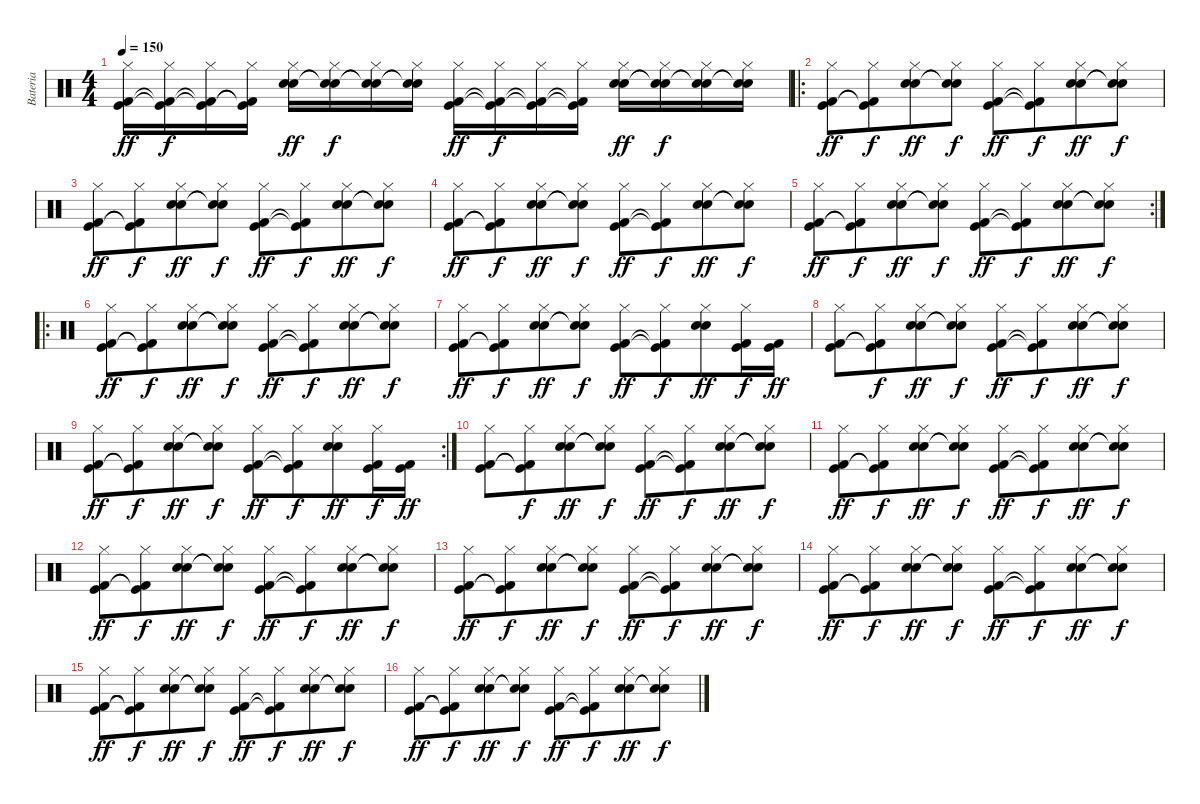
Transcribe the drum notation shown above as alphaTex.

\track ("Bateria" "Bateria") {instrument percussion}
\staff {score}
\articulation defaults
\ts (4 4)
\tempo 150
\clef neutral
\ks c
("Hi-Hat (closed)" "Kick (hit) 2" "Kick (hit)").16{dy ff} ("Hi-Hat (closed)" "Kick (hit) 2"{t} "Kick (hit)"{t}).16{dy f} ("Hi-Hat (closed)" "Kick (hit) 2"{t} "Kick (hit)"{t}).16 ("Hi-Hat (closed)" "Kick (hit)"{t} "Kick (hit) 2"{t}).16 ("Hi-Hat (closed)" "Snare (hit) 2" "Electric Snare (hit)").16{dy ff} ("Hi-Hat (closed)" "Snare (hit) 2"{t} "Electric Snare (hit)"{t}).16{dy f} ("Hi-Hat (closed)" "Snare (hit) 2"{t} "Electric Snare (hit)"{t}).16 ("Hi-Hat (closed)" "Snare (hit) 2"{t} "Electric Snare (hit)"{t}).16 ("Hi-Hat (closed)" "Kick (hit) 2" "Kick (hit)").16{dy ff} ("Hi-Hat (closed)" "Kick (hit) 2"{t} "Kick (hit)"{t}).16{dy f} ("Hi-Hat (closed)" "Kick (hit) 2"{t} "Kick (hit)"{t}).16 ("Hi-Hat (closed)" "Kick (hit) 2"{t} "Kick (hit)"{t}).16 ("Hi-Hat (closed)" "Snare (hit) 2" "Electric Snare (hit)").16{dy ff} ("Hi-Hat (closed)" "Snare (hit) 2"{t} "Electric Snare (hit)"{t}).16{dy f} ("Hi-Hat (closed)" "Snare (hit) 2"{t} "Electric Snare (hit)"{t}).16 ("Hi-Hat (closed)" "Snare (hit) 2"{t} "Electric Snare (hit)"{t}).16 |
\ro
("Hi-Hat (closed)" "Kick (hit) 2" "Kick (hit)").8{dy ff} ("Hi-Hat (closed)" "Kick (hit)"{t} "Kick (hit) 2"{t}).8{dy f beam merge} ("Hi-Hat (closed)" "Snare (hit) 2" "Electric Snare (hit)").8{dy ff} ("Hi-Hat (closed)" "Snare (hit) 2"{t} "Electric Snare (hit)"{t}).8{dy f} ("Hi-Hat (closed)" "Kick (hit) 2" "Kick (hit)").8{dy ff} ("Hi-Hat (closed)" "Kick (hit) 2"{t} "Kick (hit)"{t}).8{dy f beam merge} ("Hi-Hat (closed)" "Snare (hit) 2" "Electric Snare (hit)").8{dy ff} ("Hi-Hat (closed)" "Snare (hit) 2"{t} "Electric Snare (hit)"{t}).8{dy f} |
("Hi-Hat (closed)" "Kick (hit) 2" "Kick (hit)").8{dy ff} ("Hi-Hat (closed)" "Kick (hit)"{t} "Kick (hit) 2"{t}).8{dy f beam merge} ("Hi-Hat (closed)" "Snare (hit) 2" "Electric Snare (hit)").8{dy ff} ("Hi-Hat (closed)" "Snare (hit) 2"{t} "Electric Snare (hit)"{t}).8{dy f} ("Hi-Hat (closed)" "Kick (hit) 2" "Kick (hit)").8{dy ff} ("Hi-Hat (closed)" "Kick (hit) 2"{t} "Kick (hit)"{t}).8{dy f beam merge} ("Hi-Hat (closed)" "Snare (hit) 2" "Electric Snare (hit)").8{dy ff} ("Hi-Hat (closed)" "Snare (hit) 2"{t} "Electric Snare (hit)"{t}).8{dy f} |
("Hi-Hat (closed)" "Kick (hit) 2" "Kick (hit)").8{dy ff} ("Hi-Hat (closed)" "Kick (hit)"{t} "Kick (hit) 2"{t}).8{dy f beam merge} ("Hi-Hat (closed)" "Snare (hit) 2" "Electric Snare (hit)").8{dy ff} ("Hi-Hat (closed)" "Snare (hit) 2"{t} "Electric Snare (hit)"{t}).8{dy f} ("Hi-Hat (closed)" "Kick (hit) 2" "Kick (hit)").8{dy ff} ("Hi-Hat (closed)" "Kick (hit) 2"{t} "Kick (hit)"{t}).8{dy f beam merge} ("Hi-Hat (closed)" "Snare (hit) 2" "Electric Snare (hit)").8{dy ff} ("Hi-Hat (closed)" "Snare (hit) 2"{t} "Electric Snare (hit)"{t}).8{dy f} |
\rc 2
("Hi-Hat (closed)" "Kick (hit) 2" "Kick (hit)").8{dy ff} ("Hi-Hat (closed)" "Kick (hit)"{t} "Kick (hit) 2"{t}).8{dy f beam merge} ("Hi-Hat (closed)" "Snare (hit) 2" "Electric Snare (hit)").8{dy ff} ("Hi-Hat (closed)" "Snare (hit) 2"{t} "Electric Snare (hit)"{t}).8{dy f} ("Hi-Hat (closed)" "Kick (hit) 2" "Kick (hit)").8{dy ff} ("Hi-Hat (closed)" "Kick (hit) 2"{t} "Kick (hit)"{t}).8{dy f beam merge} ("Hi-Hat (closed)" "Snare (hit) 2" "Electric Snare (hit)").8{dy ff} ("Hi-Hat (closed)" "Snare (hit) 2"{t} "Electric Snare (hit)"{t}).8{dy f} |
\ro
("Hi-Hat (closed)" "Kick (hit) 2" "Kick (hit)").8{dy ff} ("Hi-Hat (closed)" "Kick (hit)"{t} "Kick (hit) 2"{t}).8{dy f beam merge} ("Hi-Hat (closed)" "Snare (hit) 2" "Electric Snare (hit)").8{dy ff} ("Hi-Hat (closed)" "Snare (hit) 2"{t} "Electric Snare (hit)"{t}).8{dy f} ("Hi-Hat (closed)" "Kick (hit) 2" "Kick (hit)").8{dy ff} ("Hi-Hat (closed)" "Kick (hit) 2"{t} "Kick (hit)"{t}).8{dy f beam merge} ("Hi-Hat (closed)" "Snare (hit) 2" "Electric Snare (hit)").8{dy ff} ("Hi-Hat (closed)" "Snare (hit) 2"{t} "Electric Snare (hit)"{t}).8{dy f} |
("Hi-Hat (closed)" "Kick (hit) 2" "Kick (hit)").8{dy ff} ("Hi-Hat (closed)" "Kick (hit)"{t} "Kick (hit) 2"{t}).8{dy f beam merge} ("Hi-Hat (closed)" "Snare (hit) 2" "Electric Snare (hit)").8{dy ff} ("Hi-Hat (closed)" "Snare (hit) 2"{t} "Electric Snare (hit)"{t}).8{dy f} ("Hi-Hat (closed)" "Kick (hit) 2" "Kick (hit)").8{dy ff} ("Hi-Hat (closed)" "Kick (hit) 2"{t} "Kick (hit)"{t}).8{dy f beam merge} ("Hi-Hat (closed)" "Snare (hit) 2" "Electric Snare (hit)").8{dy ff} ("Hi-Hat (closed)" "Kick (hit) 2" "Kick (hit)").16{dy f} ("Kick (hit) 2" "Kick (hit)").16{dy ff} |
("Hi-Hat (closed)" "Kick (hit) 2" "Kick (hit)").8 ("Hi-Hat (closed)" "Kick (hit)"{t} "Kick (hit) 2"{t}).8{dy f beam merge} ("Hi-Hat (closed)" "Snare (hit) 2" "Electric Snare (hit)").8{dy ff} ("Hi-Hat (closed)" "Snare (hit) 2"{t} "Electric Snare (hit)"{t}).8{dy f} ("Hi-Hat (closed)" "Kick (hit) 2" "Kick (hit)").8{dy ff} ("Hi-Hat (closed)" "Kick (hit) 2"{t} "Kick (hit)"{t}).8{dy f beam merge} ("Hi-Hat (closed)" "Snare (hit) 2" "Electric Snare (hit)").8{dy ff} ("Hi-Hat (closed)" "Snare (hit) 2"{t} "Electric Snare (hit)"{t}).8{dy f} |
\rc 2
("Hi-Hat (closed)" "Kick (hit) 2" "Kick (hit)").8{dy ff} ("Hi-Hat (closed)" "Kick (hit)"{t} "Kick (hit) 2"{t}).8{dy f beam merge} ("Hi-Hat (closed)" "Snare (hit) 2" "Electric Snare (hit)").8{dy ff} ("Hi-Hat (closed)" "Snare (hit) 2"{t} "Electric Snare (hit)"{t}).8{dy f} ("Hi-Hat (closed)" "Kick (hit) 2" "Kick (hit)").8{dy ff} ("Hi-Hat (closed)" "Kick (hit) 2"{t} "Kick (hit)"{t}).8{dy f beam merge} ("Hi-Hat (closed)" "Snare (hit) 2" "Electric Snare (hit)").8{dy ff} ("Hi-Hat (closed)" "Kick (hit) 2" "Kick (hit)").16{dy f} ("Kick (hit) 2" "Kick (hit)").16{dy ff} |
("Hi-Hat (closed)" "Kick (hit) 2" "Kick (hit)").8 ("Hi-Hat (closed)" "Kick (hit)"{t} "Kick (hit) 2"{t}).8{dy f beam merge} ("Hi-Hat (closed)" "Snare (hit) 2" "Electric Snare (hit)").8{dy ff} ("Hi-Hat (closed)" "Snare (hit) 2"{t} "Electric Snare (hit)"{t}).8{dy f} ("Hi-Hat (closed)" "Kick (hit) 2" "Kick (hit)").8{dy ff} ("Hi-Hat (closed)" "Kick (hit) 2"{t} "Kick (hit)"{t}).8{dy f beam merge} ("Hi-Hat (closed)" "Snare (hit) 2" "Electric Snare (hit)").8{dy ff} ("Hi-Hat (closed)" "Snare (hit) 2"{t} "Electric Snare (hit)"{t}).8{dy f} |
("Hi-Hat (closed)" "Kick (hit) 2" "Kick (hit)").8{dy ff} ("Hi-Hat (closed)" "Kick (hit)"{t} "Kick (hit) 2"{t}).8{dy f beam merge} ("Hi-Hat (closed)" "Snare (hit) 2" "Electric Snare (hit)").8{dy ff} ("Hi-Hat (closed)" "Snare (hit) 2"{t} "Electric Snare (hit)"{t}).8{dy f} ("Hi-Hat (closed)" "Kick (hit) 2" "Kick (hit)").8{dy ff} ("Hi-Hat (closed)" "Kick (hit) 2"{t} "Kick (hit)"{t}).8{dy f beam merge} ("Hi-Hat (closed)" "Snare (hit) 2" "Electric Snare (hit)").8{dy ff} ("Hi-Hat (closed)" "Snare (hit) 2"{t} "Electric Snare (hit)"{t}).8{dy f} |
("Hi-Hat (closed)" "Kick (hit) 2" "Kick (hit)").8{dy ff} ("Hi-Hat (closed)" "Kick (hit)"{t} "Kick (hit) 2"{t}).8{dy f beam merge} ("Hi-Hat (closed)" "Snare (hit) 2" "Electric Snare (hit)").8{dy ff} ("Hi-Hat (closed)" "Snare (hit) 2"{t} "Electric Snare (hit)"{t}).8{dy f} ("Hi-Hat (closed)" "Kick (hit) 2" "Kick (hit)").8{dy ff} ("Hi-Hat (closed)" "Kick (hit) 2"{t} "Kick (hit)"{t}).8{dy f beam merge} ("Hi-Hat (closed)" "Snare (hit) 2" "Electric Snare (hit)").8{dy ff} ("Hi-Hat (closed)" "Snare (hit) 2"{t} "Electric Snare (hit)"{t}).8{dy f} |
("Hi-Hat (closed)" "Kick (hit) 2" "Kick (hit)").8{dy ff} ("Hi-Hat (closed)" "Kick (hit)"{t} "Kick (hit) 2"{t}).8{dy f beam merge} ("Hi-Hat (closed)" "Snare (hit) 2" "Electric Snare (hit)").8{dy ff} ("Hi-Hat (closed)" "Snare (hit) 2"{t} "Electric Snare (hit)"{t}).8{dy f} ("Hi-Hat (closed)" "Kick (hit) 2" "Kick (hit)").8{dy ff} ("Hi-Hat (closed)" "Kick (hit) 2"{t} "Kick (hit)"{t}).8{dy f beam merge} ("Hi-Hat (closed)" "Snare (hit) 2" "Electric Snare (hit)").8{dy ff} ("Hi-Hat (closed)" "Snare (hit) 2"{t} "Electric Snare (hit)"{t}).8{dy f} |
("Hi-Hat (closed)" "Kick (hit) 2" "Kick (hit)").8{dy ff} ("Hi-Hat (closed)" "Kick (hit)"{t} "Kick (hit) 2"{t}).8{dy f beam merge} ("Hi-Hat (closed)" "Snare (hit) 2" "Electric Snare (hit)").8{dy ff} ("Hi-Hat (closed)" "Snare (hit) 2"{t} "Electric Snare (hit)"{t}).8{dy f} ("Hi-Hat (closed)" "Kick (hit) 2" "Kick (hit)").8{dy ff} ("Hi-Hat (closed)" "Kick (hit) 2"{t} "Kick (hit)"{t}).8{dy f beam merge} ("Hi-Hat (closed)" "Snare (hit) 2" "Electric Snare (hit)").8{dy ff} ("Hi-Hat (closed)" "Snare (hit) 2"{t} "Electric Snare (hit)"{t}).8{dy f} |
("Hi-Hat (closed)" "Kick (hit) 2" "Kick (hit)").8{dy ff} ("Hi-Hat (closed)" "Kick (hit)"{t} "Kick (hit) 2"{t}).8{dy f beam merge} ("Hi-Hat (closed)" "Snare (hit) 2" "Electric Snare (hit)").8{dy ff} ("Hi-Hat (closed)" "Snare (hit) 2"{t} "Electric Snare (hit)"{t}).8{dy f} ("Hi-Hat (closed)" "Kick (hit) 2" "Kick (hit)").8{dy ff} ("Hi-Hat (closed)" "Kick (hit) 2"{t} "Kick (hit)"{t}).8{dy f beam merge} ("Hi-Hat (closed)" "Snare (hit) 2" "Electric Snare (hit)").8{dy ff} ("Hi-Hat (closed)" "Snare (hit) 2"{t} "Electric Snare (hit)"{t}).8{dy f} |
("Hi-Hat (closed)" "Kick (hit) 2" "Kick (hit)").8{dy ff} ("Hi-Hat (closed)" "Kick (hit)"{t} "Kick (hit) 2"{t}).8{dy f beam merge} ("Hi-Hat (closed)" "Snare (hit) 2" "Electric Snare (hit)").8{dy ff} ("Hi-Hat (closed)" "Snare (hit) 2"{t} "Electric Snare (hit)"{t}).8{dy f} ("Hi-Hat (closed)" "Kick (hit) 2" "Kick (hit)").8{dy ff} ("Hi-Hat (closed)" "Kick (hit) 2"{t} "Kick (hit)"{t}).8{dy f beam merge} ("Hi-Hat (closed)" "Snare (hit) 2" "Electric Snare (hit)").8{dy ff} ("Hi-Hat (closed)" "Snare (hit) 2"{t} "Electric Snare (hit)"{t}).8{dy f}
